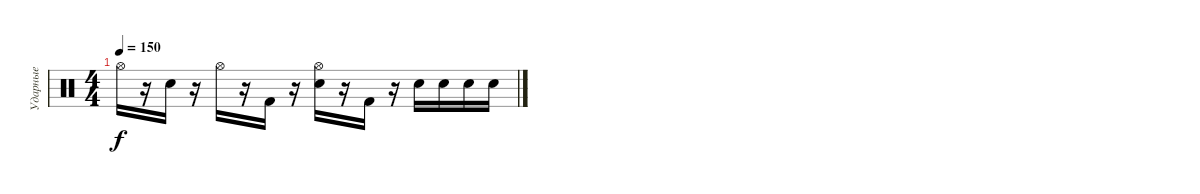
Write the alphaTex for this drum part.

\track ("Ударные" "Ударные") {instrument percussion}
\staff {score}
\articulation defaults
\ts (4 4)
\tempo 150
\clef neutral
\ks c "Hi-Hat (open)".16{dy f}
r.16 "Electric Snare (hit)".16 r.16 "Hi-Hat (open)".16 r.16 "Kick (hit) 2".16 r.16 ("Hi-Hat (open)" "Electric Snare (hit)").16 r.16 "Kick (hit) 2".16 r.16 "Electric Snare (hit)".16 "Electric Snare (hit)".16 "Electric Snare (hit)".16 "Electric Snare (hit)".16
